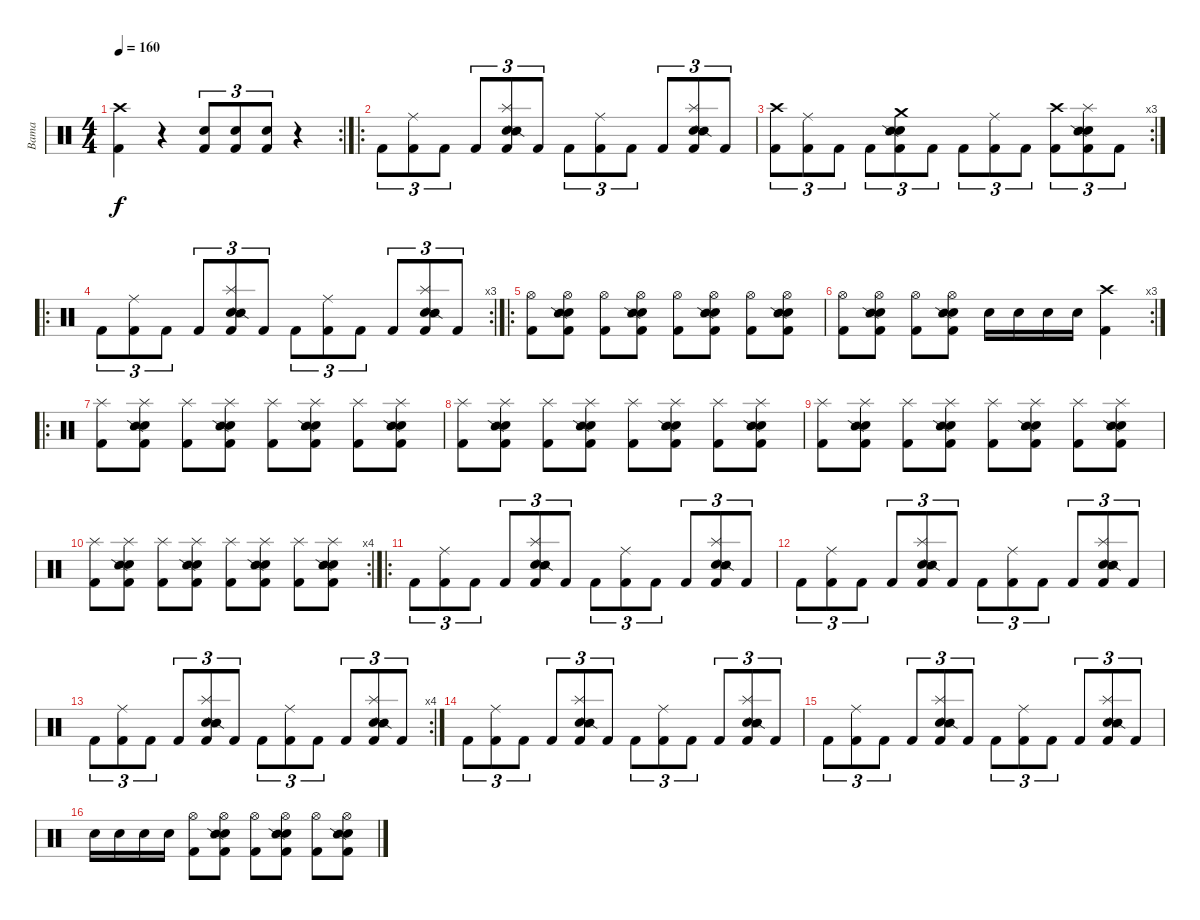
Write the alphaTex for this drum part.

\track ("Bama" "Bama") {instrument percussion}
\staff {score}
\articulation defaults
\rc 2
\ts (4 4)
\tempo 160
\clef neutral
\ks c
("Crash high (hit)" "Kick (hit) 2").4{dy f} r.4 ("Electric Snare (hit)" "Kick (hit) 2").8{tu (3 2)} ("Electric Snare (hit)" "Kick (hit) 2").8{tu (3 2)} ("Electric Snare (hit)" "Kick (hit) 2").8{tu (3 2)} r.4 |
\ro "Kick (hit) 2".8{tu (3 2)}
("Ride (middle)" "Kick (hit) 2").8{tu (3 2)} "Kick (hit) 2".8{tu (3 2)} "Kick (hit) 2".8{tu (3 2)} ("Splash (hit)" "Electric Snare (hit)" "Snare (side stick) 2" "Kick (hit) 2").8{tu (3 2)} "Kick (hit) 2".8{tu (3 2)} "Kick (hit) 2".8{tu (3 2)} ("Ride (middle)" "Kick (hit) 2").8{tu (3 2)} "Kick (hit) 2".8{tu (3 2)} "Kick (hit) 2".8{tu (3 2)} ("Splash (hit)" "Electric Snare (hit)" "Snare (side stick) 2" "Kick (hit) 2").8{tu (3 2)} "Kick (hit) 2".8{tu (3 2)} |
\rc 3
("Crash high (hit)" "Kick (hit) 2").8{tu (3 2)} ("Ride (middle)" "Kick (hit) 2").8{tu (3 2)} "Kick (hit) 2".8{tu (3 2)} "Kick (hit) 2".8{tu (3 2)} ("Crash medium (hit)" "Electric Snare (hit)" "Snare (side stick) 2" "Kick (hit) 2").8{tu (3 2)} "Kick (hit) 2".8{tu (3 2)} "Kick (hit) 2".8{tu (3 2)} ("Ride (middle)" "Kick (hit) 2").8{tu (3 2)} "Kick (hit) 2".8{tu (3 2)} ("Crash high (hit)" "Kick (hit) 2").8{tu (3 2)} ("Splash (hit)" "Electric Snare (hit)" "Snare (side stick) 2" "Kick (hit) 2").8{tu (3 2)} "Kick (hit) 2".8{tu (3 2)} |
\ro
\rc 3 "Kick (hit) 2".8{tu (3 2)}
("Ride (middle)" "Kick (hit) 2").8{tu (3 2)} "Kick (hit) 2".8{tu (3 2)} "Kick (hit) 2".8{tu (3 2)} ("Splash (hit)" "Electric Snare (hit)" "Snare (side stick) 2" "Kick (hit) 2").8{tu (3 2)} "Kick (hit) 2".8{tu (3 2)} "Kick (hit) 2".8{tu (3 2)} ("Ride (middle)" "Kick (hit) 2").8{tu (3 2)} "Kick (hit) 2".8{tu (3 2)} "Kick (hit) 2".8{tu (3 2)} ("Splash (hit)" "Electric Snare (hit)" "Snare (side stick) 2" "Kick (hit) 2").8{tu (3 2)} "Kick (hit) 2".8{tu (3 2)} |
\ro
("Hi-Hat (open)" "Kick (hit) 2").8 ("Hi-Hat (open)" "Electric Snare (hit)" "Snare (side stick) 2" "Kick (hit) 2").8 ("Hi-Hat (open)" "Kick (hit) 2").8 ("Hi-Hat (open)" "Electric Snare (hit)" "Snare (side stick) 2" "Kick (hit) 2").8 ("Hi-Hat (open)" "Kick (hit) 2").8 ("Hi-Hat (open)" "Electric Snare (hit)" "Snare (side stick) 2" "Kick (hit) 2").8 ("Hi-Hat (open)" "Kick (hit) 2").8 ("Hi-Hat (open)" "Electric Snare (hit)" "Snare (side stick) 2" "Kick (hit) 2").8 |
\rc 3
("Hi-Hat (open)" "Kick (hit) 2").8 ("Hi-Hat (open)" "Electric Snare (hit)" "Snare (side stick) 2" "Kick (hit) 2").8 ("Hi-Hat (open)" "Kick (hit) 2").8 ("Hi-Hat (open)" "Electric Snare (hit)" "Snare (side stick) 2" "Kick (hit) 2").8 "Electric Snare (hit)".16 "Electric Snare (hit)".16 "Electric Snare (hit)".16 "Electric Snare (hit)".16 ("Crash high (hit)" "Kick (hit) 2").4 |
\ro
("Splash (hit)" "Kick (hit) 2").8 ("Splash (hit)" "Electric Snare (hit)" "Snare (side stick) 2" "Kick (hit) 2").8 ("Splash (hit)" "Kick (hit) 2").8 ("Splash (hit)" "Electric Snare (hit)" "Snare (side stick) 2" "Kick (hit) 2").8 ("Splash (hit)" "Kick (hit) 2").8 ("Splash (hit)" "Electric Snare (hit)" "Snare (side stick) 2" "Kick (hit) 2").8 ("Splash (hit)" "Kick (hit) 2").8 ("Splash (hit)" "Electric Snare (hit)" "Snare (side stick) 2" "Kick (hit) 2").8 |
("Splash (hit)" "Kick (hit) 2").8 ("Splash (hit)" "Electric Snare (hit)" "Snare (side stick) 2" "Kick (hit) 2").8 ("Splash (hit)" "Kick (hit) 2").8 ("Splash (hit)" "Electric Snare (hit)" "Snare (side stick) 2" "Kick (hit) 2").8 ("Splash (hit)" "Kick (hit) 2").8 ("Splash (hit)" "Electric Snare (hit)" "Snare (side stick) 2" "Kick (hit) 2").8 ("Splash (hit)" "Kick (hit) 2").8 ("Splash (hit)" "Electric Snare (hit)" "Snare (side stick) 2" "Kick (hit) 2").8 |
("Splash (hit)" "Kick (hit) 2").8 ("Splash (hit)" "Electric Snare (hit)" "Snare (side stick) 2" "Kick (hit) 2").8 ("Splash (hit)" "Kick (hit) 2").8 ("Splash (hit)" "Electric Snare (hit)" "Snare (side stick) 2" "Kick (hit) 2").8 ("Splash (hit)" "Kick (hit) 2").8 ("Splash (hit)" "Electric Snare (hit)" "Snare (side stick) 2" "Kick (hit) 2").8 ("Splash (hit)" "Kick (hit) 2").8 ("Splash (hit)" "Electric Snare (hit)" "Snare (side stick) 2" "Kick (hit) 2").8 |
\rc 4
("Splash (hit)" "Kick (hit) 2").8 ("Splash (hit)" "Electric Snare (hit)" "Snare (side stick) 2" "Kick (hit) 2").8 ("Splash (hit)" "Kick (hit) 2").8 ("Splash (hit)" "Electric Snare (hit)" "Snare (side stick) 2" "Kick (hit) 2").8 ("Splash (hit)" "Kick (hit) 2").8 ("Splash (hit)" "Electric Snare (hit)" "Snare (side stick) 2" "Kick (hit) 2").8 ("Splash (hit)" "Kick (hit) 2").8 ("Splash (hit)" "Electric Snare (hit)" "Snare (side stick) 2" "Kick (hit) 2").8 |
\ro "Kick (hit) 2".8{tu (3 2)}
("Ride (middle)" "Kick (hit) 2").8{tu (3 2)} "Kick (hit) 2".8{tu (3 2)} "Kick (hit) 2".8{tu (3 2)} ("Splash (hit)" "Electric Snare (hit)" "Snare (side stick) 2" "Kick (hit) 2").8{tu (3 2)} "Kick (hit) 2".8{tu (3 2)} "Kick (hit) 2".8{tu (3 2)} ("Ride (middle)" "Kick (hit) 2").8{tu (3 2)} "Kick (hit) 2".8{tu (3 2)} "Kick (hit) 2".8{tu (3 2)} ("Splash (hit)" "Electric Snare (hit)" "Snare (side stick) 2" "Kick (hit) 2").8{tu (3 2)} "Kick (hit) 2".8{tu (3 2)} |
"Kick (hit) 2".8{tu (3 2)} ("Ride (middle)" "Kick (hit) 2").8{tu (3 2)} "Kick (hit) 2".8{tu (3 2)} "Kick (hit) 2".8{tu (3 2)} ("Splash (hit)" "Electric Snare (hit)" "Snare (side stick) 2" "Kick (hit) 2").8{tu (3 2)} "Kick (hit) 2".8{tu (3 2)} "Kick (hit) 2".8{tu (3 2)} ("Ride (middle)" "Kick (hit) 2").8{tu (3 2)} "Kick (hit) 2".8{tu (3 2)} "Kick (hit) 2".8{tu (3 2)} ("Splash (hit)" "Electric Snare (hit)" "Snare (side stick) 2" "Kick (hit) 2").8{tu (3 2)} "Kick (hit) 2".8{tu (3 2)} |
\rc 4 "Kick (hit) 2".8{tu (3 2)}
("Ride (middle)" "Kick (hit) 2").8{tu (3 2)} "Kick (hit) 2".8{tu (3 2)} "Kick (hit) 2".8{tu (3 2)} ("Splash (hit)" "Electric Snare (hit)" "Snare (side stick) 2" "Kick (hit) 2").8{tu (3 2)} "Kick (hit) 2".8{tu (3 2)} "Kick (hit) 2".8{tu (3 2)} ("Ride (middle)" "Kick (hit) 2").8{tu (3 2)} "Kick (hit) 2".8{tu (3 2)} "Kick (hit) 2".8{tu (3 2)} ("Splash (hit)" "Electric Snare (hit)" "Snare (side stick) 2" "Kick (hit) 2").8{tu (3 2)} "Kick (hit) 2".8{tu (3 2)} |
"Kick (hit) 2".8{tu (3 2)} ("Ride (middle)" "Kick (hit) 2").8{tu (3 2)} "Kick (hit) 2".8{tu (3 2)} "Kick (hit) 2".8{tu (3 2)} ("Splash (hit)" "Electric Snare (hit)" "Snare (side stick) 2" "Kick (hit) 2").8{tu (3 2)} "Kick (hit) 2".8{tu (3 2)} "Kick (hit) 2".8{tu (3 2)} ("Ride (middle)" "Kick (hit) 2").8{tu (3 2)} "Kick (hit) 2".8{tu (3 2)} "Kick (hit) 2".8{tu (3 2)} ("Splash (hit)" "Electric Snare (hit)" "Snare (side stick) 2" "Kick (hit) 2").8{tu (3 2)} "Kick (hit) 2".8{tu (3 2)} |
"Kick (hit) 2".8{tu (3 2)} ("Ride (middle)" "Kick (hit) 2").8{tu (3 2)} "Kick (hit) 2".8{tu (3 2)} "Kick (hit) 2".8{tu (3 2)} ("Splash (hit)" "Electric Snare (hit)" "Snare (side stick) 2" "Kick (hit) 2").8{tu (3 2)} "Kick (hit) 2".8{tu (3 2)} "Kick (hit) 2".8{tu (3 2)} ("Ride (middle)" "Kick (hit) 2").8{tu (3 2)} "Kick (hit) 2".8{tu (3 2)} "Kick (hit) 2".8{tu (3 2)} ("Splash (hit)" "Electric Snare (hit)" "Snare (side stick) 2" "Kick (hit) 2").8{tu (3 2)} "Kick (hit) 2".8{tu (3 2)} |
"Electric Snare (hit)".16 "Electric Snare (hit)".16 "Electric Snare (hit)".16 "Electric Snare (hit)".16 ("Hi-Hat (open)" "Kick (hit) 2").8 ("Hi-Hat (open)" "Electric Snare (hit)" "Snare (side stick) 2" "Kick (hit) 2").8 ("Hi-Hat (open)" "Kick (hit) 2").8 ("Hi-Hat (open)" "Electric Snare (hit)" "Snare (side stick) 2" "Kick (hit) 2").8 ("Hi-Hat (open)" "Kick (hit) 2").8 ("Hi-Hat (open)" "Electric Snare (hit)" "Snare (side stick) 2" "Kick (hit) 2").8
